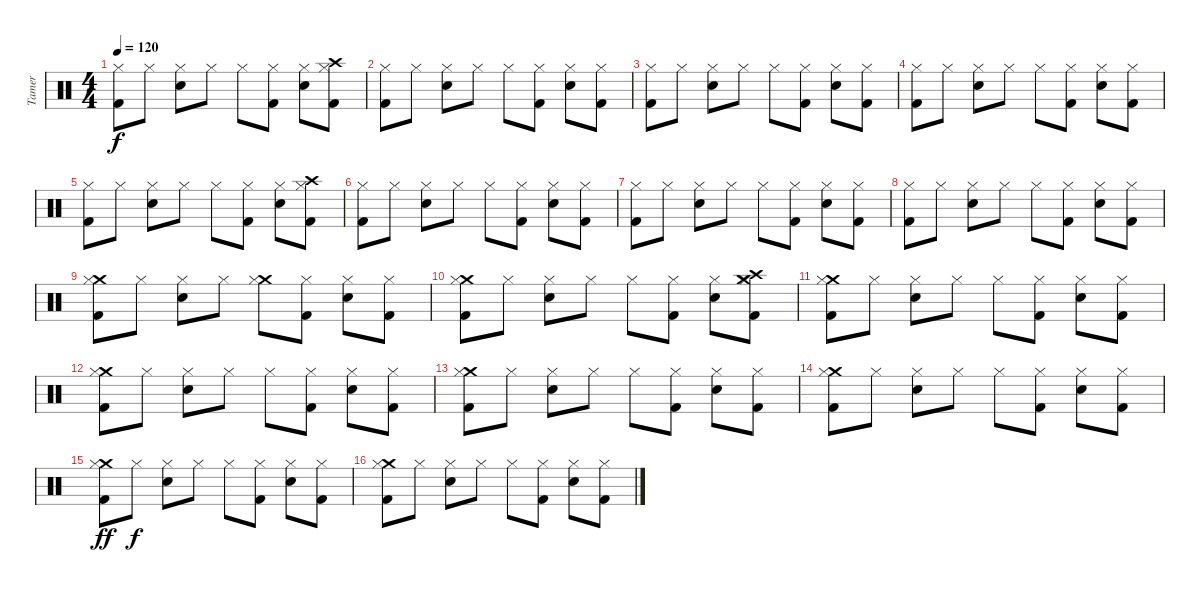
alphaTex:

\track ("Tamer" "Tamer") {instrument percussion}
\staff {score}
\articulation defaults
\ts (4 4)
\tempo 120
\clef neutral
\ks c
("Hi-Hat (closed)" "Kick (hit) 2").8{dy f} "Hi-Hat (closed)".8 ("Electric Snare (hit)" "Hi-Hat (closed)").8 "Hi-Hat (closed)".8 "Hi-Hat (closed)".8 ("Hi-Hat (closed)" "Kick (hit) 2").8 ("Electric Snare (hit)" "Hi-Hat (closed)").8 ("Crash high (hit)" "Hi-Hat (closed)" "Kick (hit) 2").8 |
("Hi-Hat (closed)" "Kick (hit) 2").8 "Hi-Hat (closed)".8 ("Electric Snare (hit)" "Hi-Hat (closed)").8 "Hi-Hat (closed)".8 "Hi-Hat (closed)".8 ("Hi-Hat (closed)" "Kick (hit) 2").8 ("Electric Snare (hit)" "Hi-Hat (closed)").8 ("Hi-Hat (closed)" "Kick (hit) 2").8 |
("Hi-Hat (closed)" "Kick (hit) 2").8 "Hi-Hat (closed)".8 ("Electric Snare (hit)" "Hi-Hat (closed)").8 "Hi-Hat (closed)".8 "Hi-Hat (closed)".8 ("Hi-Hat (closed)" "Kick (hit) 2").8 ("Electric Snare (hit)" "Hi-Hat (closed)").8 ("Hi-Hat (closed)" "Kick (hit) 2").8 |
("Hi-Hat (closed)" "Kick (hit) 2").8 "Hi-Hat (closed)".8 ("Electric Snare (hit)" "Hi-Hat (closed)").8 "Hi-Hat (closed)".8 "Hi-Hat (closed)".8 ("Hi-Hat (closed)" "Kick (hit) 2").8 ("Electric Snare (hit)" "Hi-Hat (closed)").8 ("Hi-Hat (closed)" "Kick (hit) 2").8 |
("Hi-Hat (closed)" "Kick (hit) 2").8 "Hi-Hat (closed)".8 ("Electric Snare (hit)" "Hi-Hat (closed)").8 "Hi-Hat (closed)".8 "Hi-Hat (closed)".8 ("Hi-Hat (closed)" "Kick (hit) 2").8 ("Electric Snare (hit)" "Hi-Hat (closed)").8 ("Crash high (hit)" "Hi-Hat (closed)" "Kick (hit) 2").8 |
("Hi-Hat (closed)" "Kick (hit) 2").8 "Hi-Hat (closed)".8 ("Electric Snare (hit)" "Hi-Hat (closed)").8 "Hi-Hat (closed)".8 "Hi-Hat (closed)".8 ("Hi-Hat (closed)" "Kick (hit) 2").8 ("Electric Snare (hit)" "Hi-Hat (closed)").8 ("Hi-Hat (closed)" "Kick (hit) 2").8 |
("Hi-Hat (closed)" "Kick (hit) 2").8 "Hi-Hat (closed)".8 ("Electric Snare (hit)" "Hi-Hat (closed)").8 "Hi-Hat (closed)".8 "Hi-Hat (closed)".8 ("Hi-Hat (closed)" "Kick (hit) 2").8 ("Electric Snare (hit)" "Hi-Hat (closed)").8 ("Hi-Hat (closed)" "Kick (hit) 2").8 |
("Hi-Hat (closed)" "Kick (hit) 2").8 "Hi-Hat (closed)".8 ("Electric Snare (hit)" "Hi-Hat (closed)").8 "Hi-Hat (closed)".8 "Hi-Hat (closed)".8 ("Hi-Hat (closed)" "Kick (hit) 2").8 ("Electric Snare (hit)" "Hi-Hat (closed)").8 ("Hi-Hat (closed)" "Kick (hit) 2").8 |
("Crash medium (hit)" "Hi-Hat (closed)" "Kick (hit) 2").8 "Hi-Hat (closed)".8 ("Electric Snare (hit)" "Hi-Hat (closed)").8 "Hi-Hat (closed)".8 ("Crash medium (hit)" "Hi-Hat (closed)").8 ("Hi-Hat (closed)" "Kick (hit) 2").8 ("Electric Snare (hit)" "Hi-Hat (closed)").8 ("Hi-Hat (closed)" "Kick (hit) 2").8 |
("Crash medium (hit)" "Hi-Hat (closed)" "Kick (hit) 2").8 "Hi-Hat (closed)".8 ("Electric Snare (hit)" "Hi-Hat (closed)").8 "Hi-Hat (closed)".8 "Hi-Hat (closed)".8 ("Hi-Hat (closed)" "Kick (hit) 2").8 ("Electric Snare (hit)" "Hi-Hat (closed)").8 ("Crash high (hit)" "Crash medium (hit)" "Hi-Hat (closed)" "Kick (hit) 2").8 |
("Crash medium (hit)" "Hi-Hat (closed)" "Kick (hit) 2").8 "Hi-Hat (closed)".8 ("Electric Snare (hit)" "Hi-Hat (closed)").8 "Hi-Hat (closed)".8 "Hi-Hat (closed)".8 ("Hi-Hat (closed)" "Kick (hit) 2").8 ("Electric Snare (hit)" "Hi-Hat (closed)").8 ("Hi-Hat (closed)" "Kick (hit) 2").8 |
("Crash medium (hit)" "Hi-Hat (closed)" "Kick (hit) 2").8 "Hi-Hat (closed)".8 ("Electric Snare (hit)" "Hi-Hat (closed)").8 "Hi-Hat (closed)".8 "Hi-Hat (closed)".8 ("Hi-Hat (closed)" "Kick (hit) 2").8 ("Electric Snare (hit)" "Hi-Hat (closed)").8 ("Hi-Hat (closed)" "Kick (hit) 2").8 |
("Crash medium (hit)" "Hi-Hat (closed)" "Kick (hit) 2").8 "Hi-Hat (closed)".8 ("Electric Snare (hit)" "Hi-Hat (closed)").8 "Hi-Hat (closed)".8 "Hi-Hat (closed)".8 ("Hi-Hat (closed)" "Kick (hit) 2").8 ("Electric Snare (hit)" "Hi-Hat (closed)").8 ("Hi-Hat (closed)" "Kick (hit) 2").8 |
("Crash medium (hit)" "Hi-Hat (closed)" "Kick (hit) 2").8 "Hi-Hat (closed)".8 ("Electric Snare (hit)" "Hi-Hat (closed)").8 "Hi-Hat (closed)".8 "Hi-Hat (closed)".8 ("Hi-Hat (closed)" "Kick (hit) 2").8 ("Electric Snare (hit)" "Hi-Hat (closed)").8 ("Hi-Hat (closed)" "Kick (hit) 2").8 |
("Crash medium (hit)" "Hi-Hat (closed)" "Kick (hit) 2").8{dy ff} "Hi-Hat (closed)".8{dy f} ("Electric Snare (hit)" "Hi-Hat (closed)").8 "Hi-Hat (closed)".8 "Hi-Hat (closed)".8 ("Hi-Hat (closed)" "Kick (hit) 2").8 ("Electric Snare (hit)" "Hi-Hat (closed)").8 ("Hi-Hat (closed)" "Kick (hit) 2").8 |
("Crash medium (hit)" "Hi-Hat (closed)" "Kick (hit) 2").8 "Hi-Hat (closed)".8 ("Electric Snare (hit)" "Hi-Hat (closed)").8 "Hi-Hat (closed)".8 "Hi-Hat (closed)".8 ("Hi-Hat (closed)" "Kick (hit) 2").8 ("Electric Snare (hit)" "Hi-Hat (closed)").8 ("Hi-Hat (closed)" "Kick (hit) 2").8
